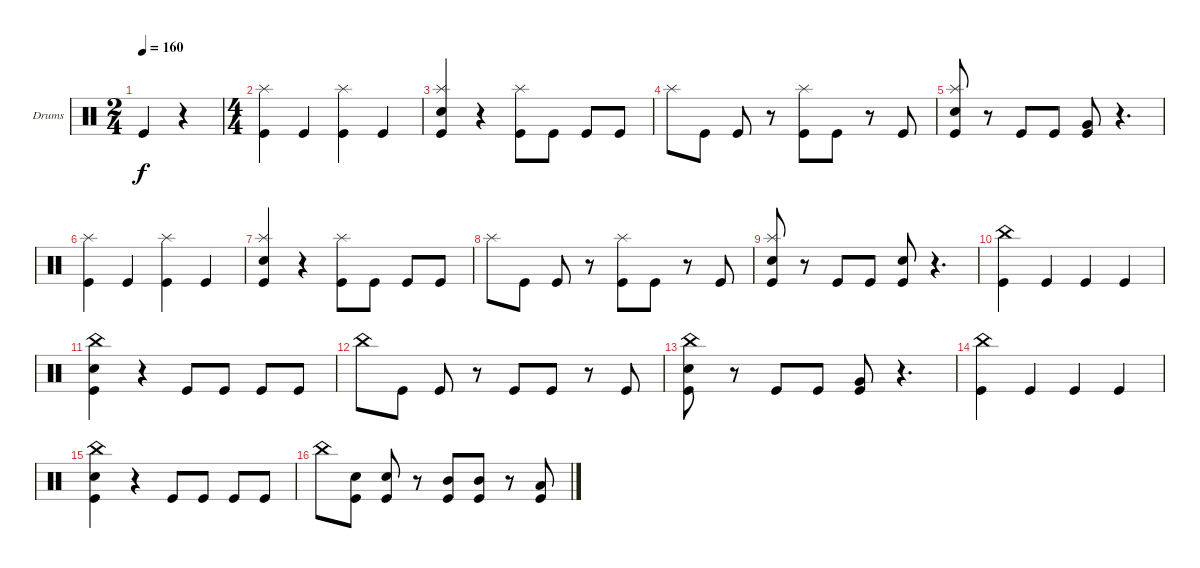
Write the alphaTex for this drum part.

\defaultSystemsLayout 4
\bracketExtendMode groupsimilarinstruments
\firstSystemTrackNameOrientation horizontal
\otherSystemsTrackNameOrientation horizontal
\track ("Drumkit" "Drums") {instrument percussion}
\staff {score}
\articulation defaults
\ts (2 4)
\tempo 160
\clef neutral
\ks c "Kick (hit)".4{dy f}
r.4 |
\ts (4 4)
("Splash (hit)" "Kick (hit)").4 "Kick (hit)".4 ("Splash (hit)" "Kick (hit)").4 "Kick (hit)".4 |
("Splash (hit)" "Kick (hit)" "Snare (hit) 2").4 r.4 ("Splash (hit)" "Kick (hit)").8 "Kick (hit)".8 "Kick (hit)".8 "Kick (hit)".8 |
"Splash (hit)".8 "Kick (hit)".8 "Kick (hit)".8 r.8 ("Splash (hit)" "Kick (hit)").8 "Kick (hit)".8 r.8 "Kick (hit)".8 |
("Kick (hit)" "Splash (hit)" "Snare (hit) 2").8 r.8 "Kick (hit)".8 "Kick (hit)".8 ("Very Low Tom (hit)" "Kick (hit)").8 r.4{d} |
("Splash (hit)" "Kick (hit)").4 "Kick (hit)".4 ("Splash (hit)" "Kick (hit)").4 "Kick (hit)".4 |
("Splash (hit)" "Kick (hit)" "Snare (hit) 2").4 r.4 ("Splash (hit)" "Kick (hit)").8 "Kick (hit)".8 "Kick (hit)".8 "Kick (hit)".8 |
"Splash (hit)".8 "Kick (hit)".8 "Kick (hit)".8 r.8 ("Splash (hit)" "Kick (hit)").8 "Kick (hit)".8 r.8 "Kick (hit)".8 |
("Kick (hit)" "Splash (hit)" "Snare (hit) 2").8 r.8 "Kick (hit)".8 "Kick (hit)".8 ("Kick (hit)" "Snare (hit) 2").8 r.4{d} |
("Kick (hit)" "China (hit)").4 "Kick (hit)".4 "Kick (hit)".4 "Kick (hit)".4 |
("Kick (hit)" "Snare (hit) 2" "China (hit)").4 r.4 "Kick (hit)".8 "Kick (hit)".8 "Kick (hit)".8 "Kick (hit)".8 |
"China (hit)".8 "Kick (hit)".8 "Kick (hit)".8 r.8 "Kick (hit)".8 "Kick (hit)".8 r.8 "Kick (hit)".8 |
("Kick (hit)" "Snare (hit) 2" "China (hit)").8 r.8 "Kick (hit)".8 "Kick (hit)".8 ("Kick (hit)" "Very Low Tom (hit)").8 r.4{d} |
("Kick (hit)" "China (hit)").4 "Kick (hit)".4 "Kick (hit)".4 "Kick (hit)".4 |
("Kick (hit)" "Snare (hit) 2" "China (hit)").4 r.4 "Kick (hit)".8 "Kick (hit)".8 "Kick (hit)".8 "Kick (hit)".8 |
"China (hit)".8 ("Snare (hit) 2" "Kick (hit)").8 ("Snare (hit) 2" "Kick (hit)").8 r.8 ("Mid Tom (hit)" "Kick (hit)").8 ("Mid Tom (hit)" "Kick (hit)").8 r.8 ("Kick (hit)" "Low Tom (hit)").8
